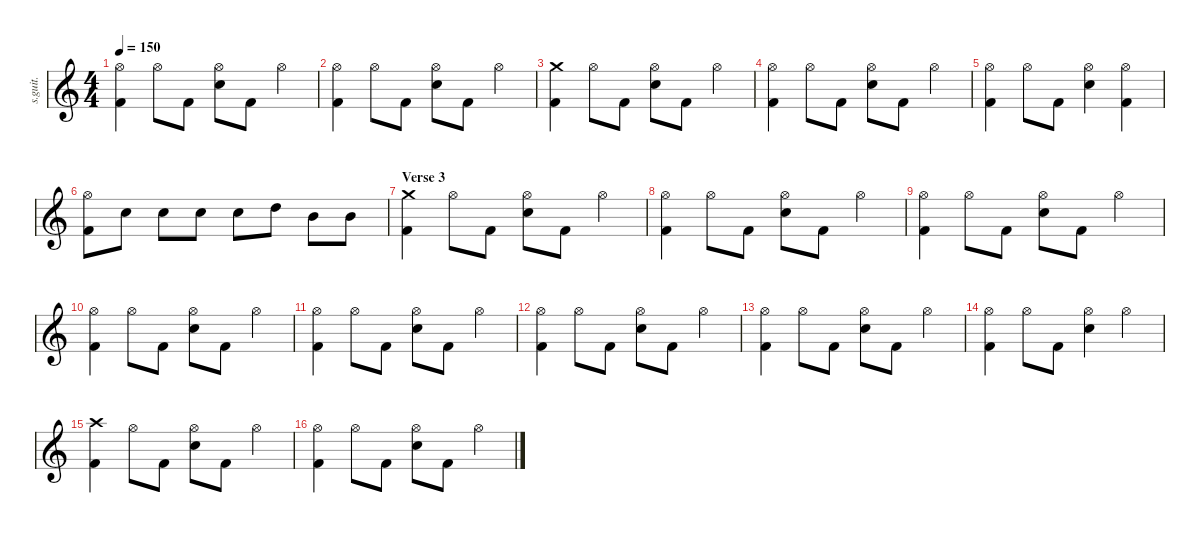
\defaultSystemsLayout 4
\hideDynamics
\bracketExtendMode nobrackets
\track ("Christoph Schneider" "s.guit.") {instrument percussion}
\staff {score}
\articulation defaults
\ts (4 4)
\tempo 150
\clef g2
\ks c
("Kick (hit) 2" "Hi-Hat (open)").4{lyrics (0 "") lyrics (1 "") lyrics (2 "") lyrics (3 "") lyrics (4 "") dy ff} "Hi-Hat (open)".8{lyrics (0 "") lyrics (1 "") lyrics (2 "") lyrics (3 "") lyrics (4 "")} "Kick (hit) 2".8{lyrics (0 "") lyrics (1 "") lyrics (2 "") lyrics (3 "") lyrics (4 "")} ("Snare (hit) 2" "Hi-Hat (open)").8{lyrics (0 "") lyrics (1 "") lyrics (2 "") lyrics (3 "") lyrics (4 "")} "Kick (hit) 2".8{lyrics (0 "") lyrics (1 "") lyrics (2 "") lyrics (3 "") lyrics (4 "")} "Hi-Hat (open)".4{lyrics (0 "") lyrics (1 "") lyrics (2 "") lyrics (3 "") lyrics (4 "")} |
("Kick (hit) 2" "Hi-Hat (open)").4{lyrics (0 "") lyrics (1 "") lyrics (2 "") lyrics (3 "") lyrics (4 "")} "Hi-Hat (open)".8{lyrics (0 "") lyrics (1 "") lyrics (2 "") lyrics (3 "") lyrics (4 "")} "Kick (hit) 2".8{lyrics (0 "") lyrics (1 "") lyrics (2 "") lyrics (3 "") lyrics (4 "")} ("Snare (hit) 2" "Hi-Hat (open)").8{lyrics (0 "") lyrics (1 "") lyrics (2 "") lyrics (3 "") lyrics (4 "")} "Kick (hit) 2".8{lyrics (0 "") lyrics (1 "") lyrics (2 "") lyrics (3 "") lyrics (4 "")} "Hi-Hat (open)".4{lyrics (0 "") lyrics (1 "") lyrics (2 "") lyrics (3 "") lyrics (4 "")} |
("Kick (hit) 2" "Crash medium (hit)").4{lyrics (0 "") lyrics (1 "") lyrics (2 "") lyrics (3 "") lyrics (4 "")} "Hi-Hat (open)".8{lyrics (0 "") lyrics (1 "") lyrics (2 "") lyrics (3 "") lyrics (4 "")} "Kick (hit) 2".8{lyrics (0 "") lyrics (1 "") lyrics (2 "") lyrics (3 "") lyrics (4 "")} ("Snare (hit) 2" "Hi-Hat (open)").8{lyrics (0 "") lyrics (1 "") lyrics (2 "") lyrics (3 "") lyrics (4 "")} "Kick (hit) 2".8{lyrics (0 "") lyrics (1 "") lyrics (2 "") lyrics (3 "") lyrics (4 "")} "Hi-Hat (open)".4{lyrics (0 "") lyrics (1 "") lyrics (2 "") lyrics (3 "") lyrics (4 "")} |
("Kick (hit) 2" "Hi-Hat (open)").4{lyrics (0 "") lyrics (1 "") lyrics (2 "") lyrics (3 "") lyrics (4 "")} "Hi-Hat (open)".8{lyrics (0 "") lyrics (1 "") lyrics (2 "") lyrics (3 "") lyrics (4 "")} "Kick (hit) 2".8{lyrics (0 "") lyrics (1 "") lyrics (2 "") lyrics (3 "") lyrics (4 "")} ("Snare (hit) 2" "Hi-Hat (open)").8{lyrics (0 "") lyrics (1 "") lyrics (2 "") lyrics (3 "") lyrics (4 "")} "Kick (hit) 2".8{lyrics (0 "") lyrics (1 "") lyrics (2 "") lyrics (3 "") lyrics (4 "")} "Hi-Hat (open)".4{lyrics (0 "") lyrics (1 "") lyrics (2 "") lyrics (3 "") lyrics (4 "")} |
("Hi-Hat (open)" "Kick (hit) 2").4{lyrics (0 "") lyrics (1 "") lyrics (2 "") lyrics (3 "") lyrics (4 "")} "Hi-Hat (open)".8{lyrics (0 "") lyrics (1 "") lyrics (2 "") lyrics (3 "") lyrics (4 "")} "Kick (hit) 2".8{lyrics (0 "") lyrics (1 "") lyrics (2 "") lyrics (3 "") lyrics (4 "")} ("Hi-Hat (open)" "Snare (hit) 2").4{lyrics (0 "") lyrics (1 "") lyrics (2 "") lyrics (3 "") lyrics (4 "")} ("Hi-Hat (open)" "Kick (hit) 2").4{lyrics (0 "") lyrics (1 "") lyrics (2 "") lyrics (3 "") lyrics (4 "")} |
("Kick (hit) 2" "Hi-Hat (open)").8{lyrics (0 "") lyrics (1 "") lyrics (2 "") lyrics (3 "") lyrics (4 "")} "Snare (hit) 2".8{lyrics (0 "") lyrics (1 "") lyrics (2 "") lyrics (3 "") lyrics (4 "")} "Snare (hit) 2".8{lyrics (0 "") lyrics (1 "") lyrics (2 "") lyrics (3 "") lyrics (4 "")} "Snare (hit) 2".8{lyrics (0 "") lyrics (1 "") lyrics (2 "") lyrics (3 "") lyrics (4 "")} "Snare (hit) 2".8{lyrics (0 "") lyrics (1 "") lyrics (2 "") lyrics (3 "") lyrics (4 "")} "High Tom (hit)".8{lyrics (0 "") lyrics (1 "") lyrics (2 "") lyrics (3 "") lyrics (4 "")} "Mid Tom (hit)".8{lyrics (0 "") lyrics (1 "") lyrics (2 "") lyrics (3 "") lyrics (4 "")} "Mid Tom (hit)".8{lyrics (0 "") lyrics (1 "") lyrics (2 "") lyrics (3 "") lyrics (4 "")} |
\section ("" "Verse 3")
("Kick (hit) 2" "Crash medium (hit)").4{lyrics (0 "") lyrics (1 "") lyrics (2 "") lyrics (3 "") lyrics (4 "")} "Hi-Hat (open)".8{lyrics (0 "") lyrics (1 "") lyrics (2 "") lyrics (3 "") lyrics (4 "")} "Kick (hit) 2".8{lyrics (0 "") lyrics (1 "") lyrics (2 "") lyrics (3 "") lyrics (4 "")} ("Snare (hit) 2" "Hi-Hat (open)").8{lyrics (0 "") lyrics (1 "") lyrics (2 "") lyrics (3 "") lyrics (4 "")} "Kick (hit) 2".8{lyrics (0 "") lyrics (1 "") lyrics (2 "") lyrics (3 "") lyrics (4 "")} "Hi-Hat (open)".4{lyrics (0 "") lyrics (1 "") lyrics (2 "") lyrics (3 "") lyrics (4 "")} |
("Kick (hit) 2" "Hi-Hat (open)").4{lyrics (0 "") lyrics (1 "") lyrics (2 "") lyrics (3 "") lyrics (4 "")} "Hi-Hat (open)".8{lyrics (0 "") lyrics (1 "") lyrics (2 "") lyrics (3 "") lyrics (4 "")} "Kick (hit) 2".8{lyrics (0 "") lyrics (1 "") lyrics (2 "") lyrics (3 "") lyrics (4 "")} ("Snare (hit) 2" "Hi-Hat (open)").8{lyrics (0 "") lyrics (1 "") lyrics (2 "") lyrics (3 "") lyrics (4 "")} "Kick (hit) 2".8{lyrics (0 "") lyrics (1 "") lyrics (2 "") lyrics (3 "") lyrics (4 "")} "Hi-Hat (open)".4{lyrics (0 "") lyrics (1 "") lyrics (2 "") lyrics (3 "") lyrics (4 "")} |
("Kick (hit) 2" "Hi-Hat (open)").4{lyrics (0 "") lyrics (1 "") lyrics (2 "") lyrics (3 "") lyrics (4 "")} "Hi-Hat (open)".8{lyrics (0 "") lyrics (1 "") lyrics (2 "") lyrics (3 "") lyrics (4 "")} "Kick (hit) 2".8{lyrics (0 "") lyrics (1 "") lyrics (2 "") lyrics (3 "") lyrics (4 "")} ("Snare (hit) 2" "Hi-Hat (open)").8{lyrics (0 "") lyrics (1 "") lyrics (2 "") lyrics (3 "") lyrics (4 "")} "Kick (hit) 2".8{lyrics (0 "") lyrics (1 "") lyrics (2 "") lyrics (3 "") lyrics (4 "")} "Hi-Hat (open)".4{lyrics (0 "") lyrics (1 "") lyrics (2 "") lyrics (3 "") lyrics (4 "")} |
("Kick (hit) 2" "Hi-Hat (open)").4{lyrics (0 "") lyrics (1 "") lyrics (2 "") lyrics (3 "") lyrics (4 "")} "Hi-Hat (open)".8{lyrics (0 "") lyrics (1 "") lyrics (2 "") lyrics (3 "") lyrics (4 "")} "Kick (hit) 2".8{lyrics (0 "") lyrics (1 "") lyrics (2 "") lyrics (3 "") lyrics (4 "")} ("Snare (hit) 2" "Hi-Hat (open)").8{lyrics (0 "") lyrics (1 "") lyrics (2 "") lyrics (3 "") lyrics (4 "")} "Kick (hit) 2".8{lyrics (0 "") lyrics (1 "") lyrics (2 "") lyrics (3 "") lyrics (4 "")} "Hi-Hat (open)".4{lyrics (0 "") lyrics (1 "") lyrics (2 "") lyrics (3 "") lyrics (4 "")} |
("Kick (hit) 2" "Hi-Hat (open)").4{lyrics (0 "") lyrics (1 "") lyrics (2 "") lyrics (3 "") lyrics (4 "")} "Hi-Hat (open)".8{lyrics (0 "") lyrics (1 "") lyrics (2 "") lyrics (3 "") lyrics (4 "")} "Kick (hit) 2".8{lyrics (0 "") lyrics (1 "") lyrics (2 "") lyrics (3 "") lyrics (4 "")} ("Snare (hit) 2" "Hi-Hat (open)").8{lyrics (0 "") lyrics (1 "") lyrics (2 "") lyrics (3 "") lyrics (4 "")} "Kick (hit) 2".8{lyrics (0 "") lyrics (1 "") lyrics (2 "") lyrics (3 "") lyrics (4 "")} "Hi-Hat (open)".4{lyrics (0 "") lyrics (1 "") lyrics (2 "") lyrics (3 "") lyrics (4 "")} |
("Kick (hit) 2" "Hi-Hat (open)").4{lyrics (0 "") lyrics (1 "") lyrics (2 "") lyrics (3 "") lyrics (4 "")} "Hi-Hat (open)".8{lyrics (0 "") lyrics (1 "") lyrics (2 "") lyrics (3 "") lyrics (4 "")} "Kick (hit) 2".8{lyrics (0 "") lyrics (1 "") lyrics (2 "") lyrics (3 "") lyrics (4 "")} ("Snare (hit) 2" "Hi-Hat (open)").8{lyrics (0 "") lyrics (1 "") lyrics (2 "") lyrics (3 "") lyrics (4 "")} "Kick (hit) 2".8{lyrics (0 "") lyrics (1 "") lyrics (2 "") lyrics (3 "") lyrics (4 "")} "Hi-Hat (open)".4{lyrics (0 "") lyrics (1 "") lyrics (2 "") lyrics (3 "") lyrics (4 "")} |
("Kick (hit) 2" "Hi-Hat (open)").4{lyrics (0 "") lyrics (1 "") lyrics (2 "") lyrics (3 "") lyrics (4 "")} "Hi-Hat (open)".8{lyrics (0 "") lyrics (1 "") lyrics (2 "") lyrics (3 "") lyrics (4 "")} "Kick (hit) 2".8{lyrics (0 "") lyrics (1 "") lyrics (2 "") lyrics (3 "") lyrics (4 "")} ("Snare (hit) 2" "Hi-Hat (open)").8{lyrics (0 "") lyrics (1 "") lyrics (2 "") lyrics (3 "") lyrics (4 "")} "Kick (hit) 2".8{lyrics (0 "") lyrics (1 "") lyrics (2 "") lyrics (3 "") lyrics (4 "")} "Hi-Hat (open)".4{lyrics (0 "") lyrics (1 "") lyrics (2 "") lyrics (3 "") lyrics (4 "")} |
("Kick (hit) 2" "Hi-Hat (open)").4{lyrics (0 "") lyrics (1 "") lyrics (2 "") lyrics (3 "") lyrics (4 "")} "Hi-Hat (open)".8{lyrics (0 "") lyrics (1 "") lyrics (2 "") lyrics (3 "") lyrics (4 "")} "Kick (hit) 2".8{lyrics (0 "") lyrics (1 "") lyrics (2 "") lyrics (3 "") lyrics (4 "")} ("Snare (hit) 2" "Hi-Hat (open)").4{lyrics (0 "") lyrics (1 "") lyrics (2 "") lyrics (3 "") lyrics (4 "")} "Hi-Hat (open)".4{lyrics (0 "") lyrics (1 "") lyrics (2 "") lyrics (3 "") lyrics (4 "")} |
("Kick (hit) 2" "Crash high (hit)").4{lyrics (0 "") lyrics (1 "") lyrics (2 "") lyrics (3 "") lyrics (4 "")} "Hi-Hat (open)".8{lyrics (0 "") lyrics (1 "") lyrics (2 "") lyrics (3 "") lyrics (4 "")} "Kick (hit) 2".8{lyrics (0 "") lyrics (1 "") lyrics (2 "") lyrics (3 "") lyrics (4 "")} ("Snare (hit) 2" "Hi-Hat (open)").8{lyrics (0 "") lyrics (1 "") lyrics (2 "") lyrics (3 "") lyrics (4 "")} "Kick (hit) 2".8{lyrics (0 "") lyrics (1 "") lyrics (2 "") lyrics (3 "") lyrics (4 "")} "Hi-Hat (open)".4{lyrics (0 "") lyrics (1 "") lyrics (2 "") lyrics (3 "") lyrics (4 "")} |
("Kick (hit) 2" "Hi-Hat (open)").4{lyrics (0 "") lyrics (1 "") lyrics (2 "") lyrics (3 "") lyrics (4 "")} "Hi-Hat (open)".8{lyrics (0 "") lyrics (1 "") lyrics (2 "") lyrics (3 "") lyrics (4 "")} "Kick (hit) 2".8{lyrics (0 "") lyrics (1 "") lyrics (2 "") lyrics (3 "") lyrics (4 "")} ("Snare (hit) 2" "Hi-Hat (open)").8{lyrics (0 "") lyrics (1 "") lyrics (2 "") lyrics (3 "") lyrics (4 "")} "Kick (hit) 2".8{lyrics (0 "") lyrics (1 "") lyrics (2 "") lyrics (3 "") lyrics (4 "")} "Hi-Hat (open)".4{lyrics (0 "") lyrics (1 "") lyrics (2 "") lyrics (3 "") lyrics (4 "")}
